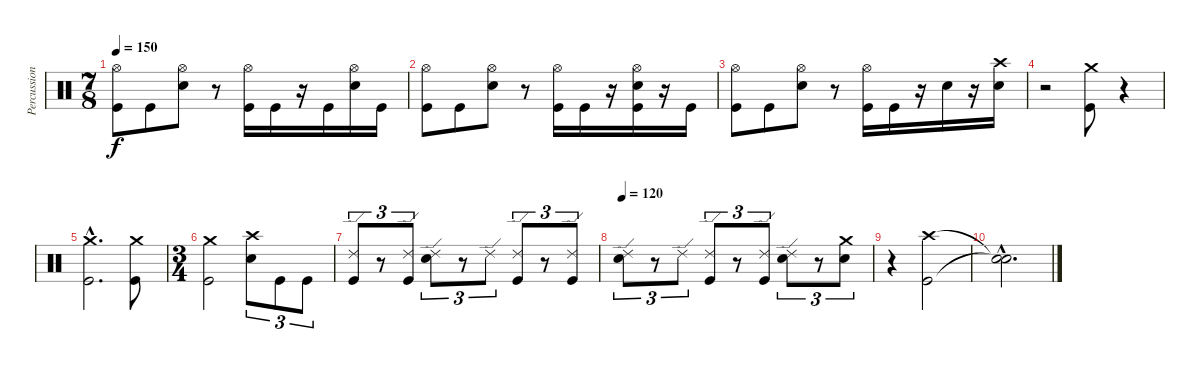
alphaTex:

\track ("Percussion" "Percussion") {instrument percussion}
\staff {score}
\articulation defaults
\ts (7 8)
\tempo 150
\clef neutral
\ks c
("Hi-Hat (open)" "Kick (hit)").8{dy f} "Kick (hit)".8 ("Hi-Hat (open)" "Snare (hit) 2").8 r.8 ("Hi-Hat (open)" "Kick (hit)").16 "Kick (hit)".16 r.16 "Kick (hit)".16 ("Hi-Hat (open)" "Snare (hit) 2").16 "Kick (hit)".16 |
("Hi-Hat (open)" "Kick (hit)").8 "Kick (hit)".8 ("Hi-Hat (open)" "Snare (hit) 2").8 r.8 ("Hi-Hat (open)" "Kick (hit)").16 "Kick (hit)".16 r.16 ("Hi-Hat (open)" "Snare (hit) 2" "Kick (hit)").16 r.16 "Kick (hit)".16 |
("Hi-Hat (open)" "Kick (hit)").8 "Kick (hit)".8 ("Hi-Hat (open)" "Snare (hit) 2").8 r.8 ("Hi-Hat (open)" "Kick (hit)").16 "Kick (hit)".16 r.16 "Snare (hit) 2".16 r.16 ("Crash high (hit)" "Snare (hit) 2").16 |
r.2 ("Crash medium (hit)" "Kick (hit)").8 r.4 |
("Crash medium (hit)"{hac} "Kick (hit)"{hac}).2{d} ("Crash medium (hit)" "Kick (hit)").8 |
\ts (3 4)
("Crash medium (hit)" "Kick (hit)").2 ("Crash high (hit)" "Snare (hit) 2").8{tu (3 2)} "Kick (hit)".8{tu (3 2)} "Kick (hit)".8{tu (3 2)} |
("Ride (edge) 2" "Kick (hit)").8{tu (3 2)} r.8{tu (3 2)} ("Ride (edge) 2" "Kick (hit)").8{tu (3 2)} ("Ride (edge) 2" "Snare (hit) 2").8{tu (3 2)} r.8{tu (3 2)} "Ride (edge) 2".8{tu (3 2)} ("Ride (edge) 2" "Kick (hit)").8{tu (3 2)} r.8{tu (3 2)} ("Ride (edge) 2" "Kick (hit)").8{tu (3 2)} |
\tempo 120
("Ride (edge) 2" "Snare (hit) 2").8{tu (3 2)} r.8{tu (3 2)} "Ride (edge) 2".8{tu (3 2)} ("Ride (edge) 2" "Kick (hit)").8{tu (3 2)} r.8{tu (3 2)} ("Ride (edge) 2" "Kick (hit)").8{tu (3 2)} ("Ride (edge) 2" "Snare (hit) 2").8{tu (3 2)} r.8{tu (3 2)} ("Crash medium (hit)" "Snare (hit) 2").8{tu (3 2)} |
r.4 ("Crash high (hit)" "Kick (hit)").2 |
("Snare (hit)"{hac t} "Snare (hit)"{hac t}).2{d volume 9}
